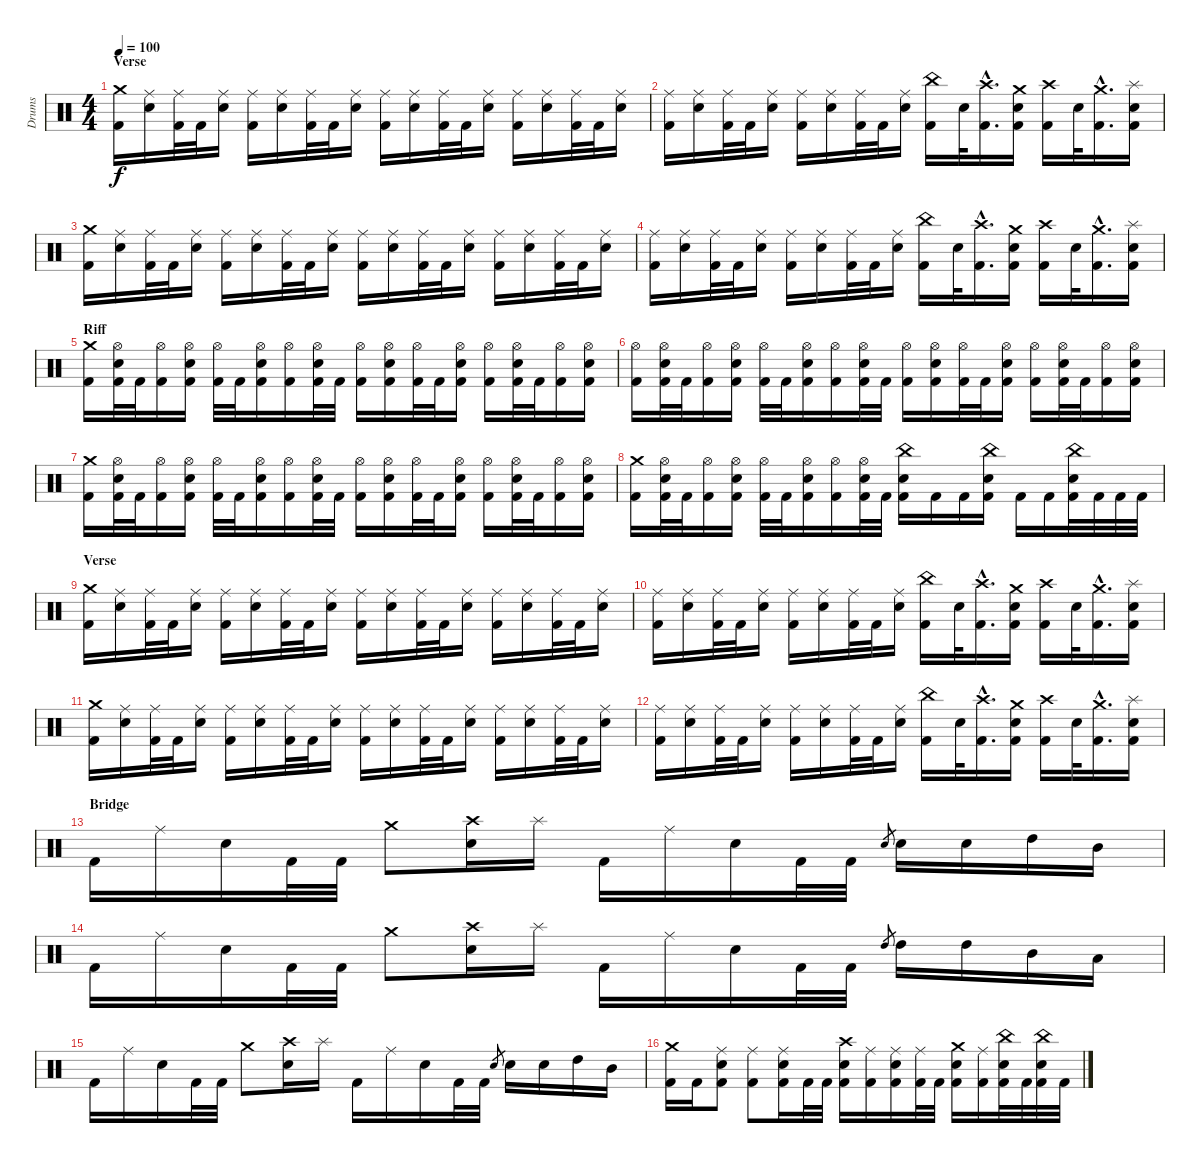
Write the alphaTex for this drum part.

\track ("Drums" "Drums") {instrument percussion}
\staff {score}
\articulation defaults
\ts (4 4)
\section ("" "Verse")
\tempo 100
\clef neutral
\ks c
("Crash medium (hit)" "Kick (hit) 2").16{dy f} ("Ride (middle)" "Electric Snare (hit)").16 ("Ride (middle)" "Kick (hit) 2").32 "Kick (hit) 2".32 ("Ride (middle)" "Electric Snare (hit)").16 ("Ride (middle)" "Kick (hit) 2").16 ("Ride (middle)" "Electric Snare (hit)").16 ("Ride (middle)" "Kick (hit) 2").32 "Kick (hit) 2".32 ("Ride (middle)" "Electric Snare (hit)").16 ("Ride (middle)" "Kick (hit) 2").16 ("Ride (middle)" "Electric Snare (hit)").16 ("Ride (middle)" "Kick (hit) 2").32 "Kick (hit) 2".32 ("Ride (middle)" "Electric Snare (hit)").16 ("Ride (middle)" "Kick (hit) 2").16 ("Ride (middle)" "Electric Snare (hit)").16 ("Ride (middle)" "Kick (hit) 2").32 "Kick (hit) 2".32 ("Ride (middle)" "Electric Snare (hit)").16 |
("Ride (middle)" "Kick (hit) 2").16 ("Ride (middle)" "Electric Snare (hit)").16 ("Ride (middle)" "Kick (hit) 2").32 "Kick (hit) 2".32 ("Ride (middle)" "Electric Snare (hit)").16 ("Ride (middle)" "Kick (hit) 2").16 ("Ride (middle)" "Electric Snare (hit)").16 ("Ride (middle)" "Kick (hit) 2").32 "Kick (hit) 2".32 ("Ride (middle)" "Electric Snare (hit)").16 ("China (hit)" "Kick (hit) 2").16 "Electric Snare (hit)".32 ("Crash high (hit)"{hac} "Kick (hit) 2"{hac}).16{d} ("Crash medium (hit)" "Electric Snare (hit)" "Kick (hit) 2").16 ("Crash high (hit)" "Kick (hit) 2").16 "Electric Snare (hit)".32 ("Crash medium (hit)"{hac} "Kick (hit) 2"{hac}).16{d} ("Splash (hit)" "Electric Snare (hit)" "Kick (hit) 2").16 |
("Crash medium (hit)" "Kick (hit) 2").16 ("Ride (middle)" "Electric Snare (hit)").16 ("Ride (middle)" "Kick (hit) 2").32 "Kick (hit) 2".32 ("Ride (middle)" "Electric Snare (hit)").16 ("Ride (middle)" "Kick (hit) 2").16 ("Ride (middle)" "Electric Snare (hit)").16 ("Ride (middle)" "Kick (hit) 2").32 "Kick (hit) 2".32 ("Ride (middle)" "Electric Snare (hit)").16 ("Ride (middle)" "Kick (hit) 2").16 ("Ride (middle)" "Electric Snare (hit)").16 ("Ride (middle)" "Kick (hit) 2").32 "Kick (hit) 2".32 ("Ride (middle)" "Electric Snare (hit)").16 ("Ride (middle)" "Kick (hit) 2").16 ("Ride (middle)" "Electric Snare (hit)").16 ("Ride (middle)" "Kick (hit) 2").32 "Kick (hit) 2".32 ("Ride (middle)" "Electric Snare (hit)").16 |
("Ride (middle)" "Kick (hit) 2").16 ("Ride (middle)" "Electric Snare (hit)").16 ("Ride (middle)" "Kick (hit) 2").32 "Kick (hit) 2".32 ("Ride (middle)" "Electric Snare (hit)").16 ("Ride (middle)" "Kick (hit) 2").16 ("Ride (middle)" "Electric Snare (hit)").16 ("Ride (middle)" "Kick (hit) 2").32 "Kick (hit) 2".32 ("Ride (middle)" "Electric Snare (hit)").16 ("China (hit)" "Kick (hit) 2").16 "Electric Snare (hit)".32 ("Crash high (hit)"{hac} "Kick (hit) 2"{hac}).16{d} ("Crash medium (hit)" "Electric Snare (hit)" "Kick (hit) 2").16 ("Crash high (hit)" "Kick (hit) 2").16 "Electric Snare (hit)".32 ("Crash medium (hit)"{hac} "Kick (hit) 2"{hac}).16{d} ("Splash (hit)" "Electric Snare (hit)" "Kick (hit) 2").16 |
\section ("" "Riff")
("Crash medium (hit)" "Kick (hit) 2").16 ("Hi-Hat (open)" "Electric Snare (hit)" "Kick (hit) 2").32 "Kick (hit) 2".32 ("Hi-Hat (open)" "Kick (hit) 2").16 ("Hi-Hat (open)" "Electric Snare (hit)" "Kick (hit) 2").16 ("Hi-Hat (open)" "Kick (hit) 2").32 "Kick (hit) 2".32 ("Hi-Hat (open)" "Electric Snare (hit)" "Kick (hit) 2").16 ("Hi-Hat (open)" "Kick (hit) 2").16 ("Hi-Hat (open)" "Electric Snare (hit)" "Kick (hit) 2").32 "Kick (hit) 2".32 ("Hi-Hat (open)" "Kick (hit) 2").16 ("Hi-Hat (open)" "Electric Snare (hit)" "Kick (hit) 2").16 ("Hi-Hat (open)" "Kick (hit) 2").32 "Kick (hit) 2".32 ("Hi-Hat (open)" "Electric Snare (hit)" "Kick (hit) 2").16 ("Hi-Hat (open)" "Kick (hit) 2").16 ("Hi-Hat (open)" "Electric Snare (hit)" "Kick (hit) 2").32 "Kick (hit) 2".32 ("Hi-Hat (open)" "Kick (hit) 2").16 ("Hi-Hat (open)" "Electric Snare (hit)" "Kick (hit) 2").16 |
("Hi-Hat (open)" "Kick (hit) 2").16 ("Hi-Hat (open)" "Electric Snare (hit)" "Kick (hit) 2").32 "Kick (hit) 2".32 ("Hi-Hat (open)" "Kick (hit) 2").16 ("Hi-Hat (open)" "Electric Snare (hit)" "Kick (hit) 2").16 ("Hi-Hat (open)" "Kick (hit) 2").32 "Kick (hit) 2".32 ("Hi-Hat (open)" "Electric Snare (hit)" "Kick (hit) 2").16 ("Hi-Hat (open)" "Kick (hit) 2").16 ("Hi-Hat (open)" "Electric Snare (hit)" "Kick (hit) 2").32 "Kick (hit) 2".32 ("Hi-Hat (open)" "Kick (hit) 2").16 ("Hi-Hat (open)" "Electric Snare (hit)" "Kick (hit) 2").16 ("Hi-Hat (open)" "Kick (hit) 2").32 "Kick (hit) 2".32 ("Hi-Hat (open)" "Electric Snare (hit)" "Kick (hit) 2").16 ("Hi-Hat (open)" "Kick (hit) 2").16 ("Hi-Hat (open)" "Electric Snare (hit)" "Kick (hit) 2").32 "Kick (hit) 2".32 ("Hi-Hat (open)" "Kick (hit) 2").16 ("Hi-Hat (open)" "Electric Snare (hit)" "Kick (hit) 2").16 |
("Crash medium (hit)" "Kick (hit) 2").16 ("Hi-Hat (open)" "Electric Snare (hit)" "Kick (hit) 2").32 "Kick (hit) 2".32 ("Hi-Hat (open)" "Kick (hit) 2").16 ("Hi-Hat (open)" "Electric Snare (hit)" "Kick (hit) 2").16 ("Hi-Hat (open)" "Kick (hit) 2").32 "Kick (hit) 2".32 ("Hi-Hat (open)" "Electric Snare (hit)" "Kick (hit) 2").16 ("Hi-Hat (open)" "Kick (hit) 2").16 ("Hi-Hat (open)" "Electric Snare (hit)" "Kick (hit) 2").32 "Kick (hit) 2".32 ("Hi-Hat (open)" "Kick (hit) 2").16 ("Hi-Hat (open)" "Electric Snare (hit)" "Kick (hit) 2").16 ("Hi-Hat (open)" "Kick (hit) 2").32 "Kick (hit) 2".32 ("Hi-Hat (open)" "Electric Snare (hit)" "Kick (hit) 2").16 ("Hi-Hat (open)" "Kick (hit) 2").16 ("Hi-Hat (open)" "Electric Snare (hit)" "Kick (hit) 2").32 "Kick (hit) 2".32 ("Hi-Hat (open)" "Kick (hit) 2").16 ("Hi-Hat (open)" "Electric Snare (hit)" "Kick (hit) 2").16 |
("Crash medium (hit)" "Kick (hit) 2").16 ("Hi-Hat (open)" "Electric Snare (hit)" "Kick (hit) 2").32 "Kick (hit) 2".32 ("Hi-Hat (open)" "Kick (hit) 2").16 ("Hi-Hat (open)" "Electric Snare (hit)" "Kick (hit) 2").16 ("Hi-Hat (open)" "Kick (hit) 2").32 "Kick (hit) 2".32 ("Hi-Hat (open)" "Electric Snare (hit)" "Kick (hit) 2").16 ("Hi-Hat (open)" "Kick (hit) 2").16 ("Hi-Hat (open)" "Electric Snare (hit)" "Kick (hit) 2").32 "Kick (hit) 2".32 ("China (hit)" "Electric Snare (hit)" "Kick (hit) 2").16 "Kick (hit) 2".16 "Kick (hit) 2".16 ("China (hit)" "Electric Snare (hit)" "Kick (hit) 2").16 "Kick (hit) 2".16 "Kick (hit) 2".16 ("China (hit)" "Electric Snare (hit)" "Kick (hit) 2").32 "Kick (hit) 2".32 "Kick (hit) 2".32 "Kick (hit) 2".32 |
\section ("" "Verse")
("Crash medium (hit)" "Kick (hit) 2").16 ("Ride (middle)" "Electric Snare (hit)").16 ("Ride (middle)" "Kick (hit) 2").32 "Kick (hit) 2".32 ("Ride (middle)" "Electric Snare (hit)").16 ("Ride (middle)" "Kick (hit) 2").16 ("Ride (middle)" "Electric Snare (hit)").16 ("Ride (middle)" "Kick (hit) 2").32 "Kick (hit) 2".32 ("Ride (middle)" "Electric Snare (hit)").16 ("Ride (middle)" "Kick (hit) 2").16 ("Ride (middle)" "Electric Snare (hit)").16 ("Ride (middle)" "Kick (hit) 2").32 "Kick (hit) 2".32 ("Ride (middle)" "Electric Snare (hit)").16 ("Ride (middle)" "Kick (hit) 2").16 ("Ride (middle)" "Electric Snare (hit)").16 ("Ride (middle)" "Kick (hit) 2").32 "Kick (hit) 2".32 ("Ride (middle)" "Electric Snare (hit)").16 |
("Ride (middle)" "Kick (hit) 2").16 ("Ride (middle)" "Electric Snare (hit)").16 ("Ride (middle)" "Kick (hit) 2").32 "Kick (hit) 2".32 ("Ride (middle)" "Electric Snare (hit)").16 ("Ride (middle)" "Kick (hit) 2").16 ("Ride (middle)" "Electric Snare (hit)").16 ("Ride (middle)" "Kick (hit) 2").32 "Kick (hit) 2".32 ("Ride (middle)" "Electric Snare (hit)").16 ("China (hit)" "Kick (hit) 2").16 "Electric Snare (hit)".32 ("Crash high (hit)"{hac} "Kick (hit) 2"{hac}).16{d} ("Crash medium (hit)" "Electric Snare (hit)" "Kick (hit) 2").16 ("Crash high (hit)" "Kick (hit) 2").16 "Electric Snare (hit)".32 ("Crash medium (hit)"{hac} "Kick (hit) 2"{hac}).16{d} ("Splash (hit)" "Electric Snare (hit)" "Kick (hit) 2").16 |
("Crash medium (hit)" "Kick (hit) 2").16 ("Ride (middle)" "Electric Snare (hit)").16 ("Ride (middle)" "Kick (hit) 2").32 "Kick (hit) 2".32 ("Ride (middle)" "Electric Snare (hit)").16 ("Ride (middle)" "Kick (hit) 2").16 ("Ride (middle)" "Electric Snare (hit)").16 ("Ride (middle)" "Kick (hit) 2").32 "Kick (hit) 2".32 ("Ride (middle)" "Electric Snare (hit)").16 ("Ride (middle)" "Kick (hit) 2").16 ("Ride (middle)" "Electric Snare (hit)").16 ("Ride (middle)" "Kick (hit) 2").32 "Kick (hit) 2".32 ("Ride (middle)" "Electric Snare (hit)").16 ("Ride (middle)" "Kick (hit) 2").16 ("Ride (middle)" "Electric Snare (hit)").16 ("Ride (middle)" "Kick (hit) 2").32 "Kick (hit) 2".32 ("Ride (middle)" "Electric Snare (hit)").16 |
("Ride (middle)" "Kick (hit) 2").16 ("Ride (middle)" "Electric Snare (hit)").16 ("Ride (middle)" "Kick (hit) 2").32 "Kick (hit) 2".32 ("Ride (middle)" "Electric Snare (hit)").16 ("Ride (middle)" "Kick (hit) 2").16 ("Ride (middle)" "Electric Snare (hit)").16 ("Ride (middle)" "Kick (hit) 2").32 "Kick (hit) 2".32 ("Ride (middle)" "Electric Snare (hit)").16 ("China (hit)" "Kick (hit) 2").16 "Electric Snare (hit)".32 ("Crash high (hit)"{hac} "Kick (hit) 2"{hac}).16{d} ("Crash medium (hit)" "Electric Snare (hit)" "Kick (hit) 2").16 ("Crash high (hit)" "Kick (hit) 2").16 "Electric Snare (hit)".32 ("Crash medium (hit)"{hac} "Kick (hit) 2"{hac}).16{d} ("Splash (hit)" "Electric Snare (hit)" "Kick (hit) 2").16 |
\section ("" "Bridge")
"Kick (hit) 2".16 "Ride (middle)".16 "Electric Snare (hit)".16 "Kick (hit) 2".32 "Kick (hit) 2".32 "Crash medium (hit)".8 ("Crash high (hit)" "Electric Snare (hit)").16 "Splash (hit)".16 "Kick (hit) 2".16 "Ride (middle)".16 "Electric Snare (hit)".16 "Kick (hit) 2".32 "Kick (hit) 2".32 "Electric Snare (hit)".8{gr} "Electric Snare (hit)".16 "Electric Snare (hit)".16 "High Tom (hit)".16 "Mid Tom (hit)".16 |
"Kick (hit) 2".16 "Ride (middle)".16 "Electric Snare (hit)".16 "Kick (hit) 2".32 "Kick (hit) 2".32 "Crash medium (hit)".8 ("Crash high (hit)" "Electric Snare (hit)").16 "Splash (hit)".16 "Kick (hit) 2".16 "Ride (middle)".16 "Electric Snare (hit)".16 "Kick (hit) 2".32 "Kick (hit) 2".32 "High Tom (hit)".8{gr} "High Tom (hit)".16 "High Tom (hit)".16 "Mid Tom (hit)".16 "Low Tom (hit)".16 |
"Kick (hit) 2".16 "Ride (middle)".16 "Electric Snare (hit)".16 "Kick (hit) 2".32 "Kick (hit) 2".32 "Crash medium (hit)".8 ("Crash high (hit)" "Electric Snare (hit)").16 "Splash (hit)".16 "Kick (hit) 2".16 "Ride (middle)".16 "Electric Snare (hit)".16 "Kick (hit) 2".32 "Kick (hit) 2".32 "Electric Snare (hit)".8{gr} "Electric Snare (hit)".16 "Electric Snare (hit)".16 "High Tom (hit)".16 "Mid Tom (hit)".16 |
("Crash medium (hit)" "Kick (hit) 2").16 "Kick (hit) 2".16 ("Ride (middle)" "Electric Snare (hit)" "Kick (hit) 2").8 ("Ride (middle)" "Kick (hit) 2").8 ("Ride (middle)" "Electric Snare (hit)" "Kick (hit) 2").16 "Kick (hit) 2".32 "Kick (hit) 2".32 ("Crash high (hit)" "Electric Snare (hit)" "Kick (hit) 2").16 ("Ride (middle)" "Kick (hit) 2").16 ("Ride (middle)" "Electric Snare (hit)" "Kick (hit) 2").16 ("Ride (middle)" "Kick (hit) 2").32 "Kick (hit) 2".32 ("Crash medium (hit)" "Electric Snare (hit)" "Kick (hit) 2").16 ("Ride (middle)" "Kick (hit) 2").16 ("China (hit)" "Electric Snare (hit)" "Kick (hit) 2").32 "Kick (hit) 2".32 ("China (hit)" "Electric Snare (hit)" "Kick (hit) 2").32 "Kick (hit) 2".32
